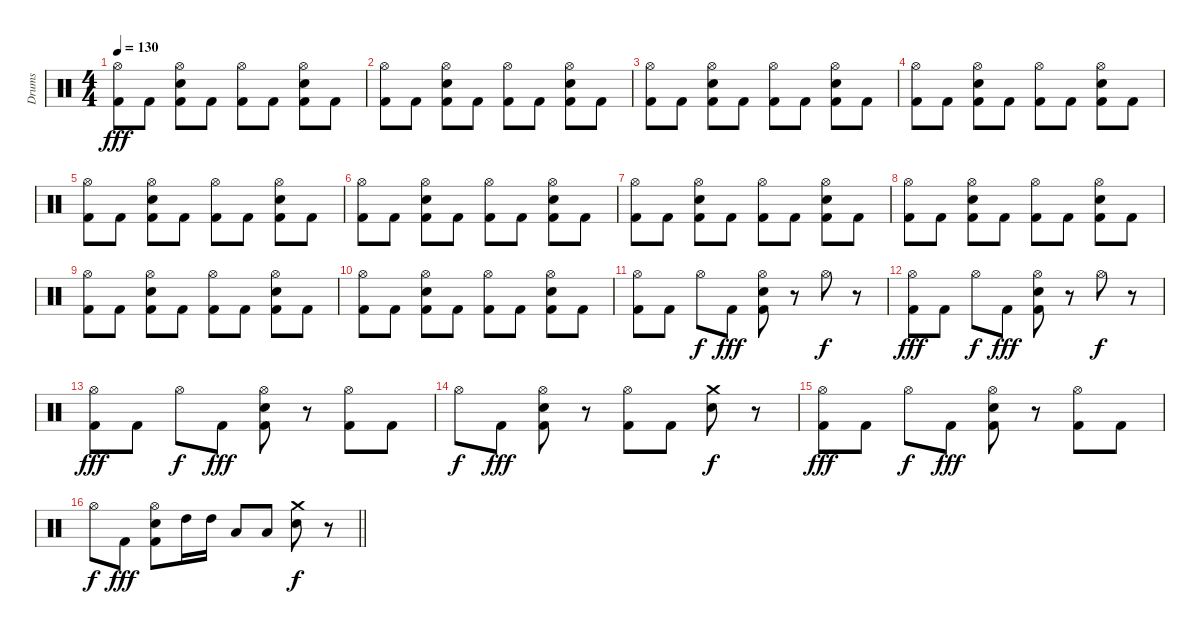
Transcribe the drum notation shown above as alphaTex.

\track ("Drums" "Drums") {instrument percussion}
\staff {score}
\articulation defaults
\ts (4 4)
\tempo 130
\clef neutral
\ks c
("Hi-Hat (open)" "Kick (hit) 2").8{dy fff} "Kick (hit) 2".8 ("Hi-Hat (open)" "Snare (hit) 2" "Kick (hit) 2").8 "Kick (hit) 2".8 ("Hi-Hat (open)" "Kick (hit) 2").8 "Kick (hit) 2".8 ("Hi-Hat (open)" "Snare (hit) 2" "Kick (hit) 2").8 "Kick (hit) 2".8 |
("Hi-Hat (open)" "Kick (hit) 2").8 "Kick (hit) 2".8 ("Hi-Hat (open)" "Snare (hit) 2" "Kick (hit) 2").8 "Kick (hit) 2".8 ("Hi-Hat (open)" "Kick (hit) 2").8 "Kick (hit) 2".8 ("Hi-Hat (open)" "Snare (hit) 2" "Kick (hit) 2").8 "Kick (hit) 2".8 |
("Hi-Hat (open)" "Kick (hit) 2").8 "Kick (hit) 2".8 ("Hi-Hat (open)" "Snare (hit) 2" "Kick (hit) 2").8 "Kick (hit) 2".8 ("Hi-Hat (open)" "Kick (hit) 2").8 "Kick (hit) 2".8 ("Hi-Hat (open)" "Snare (hit) 2" "Kick (hit) 2").8 "Kick (hit) 2".8 |
("Hi-Hat (open)" "Kick (hit) 2").8 "Kick (hit) 2".8 ("Hi-Hat (open)" "Snare (hit) 2" "Kick (hit) 2").8 "Kick (hit) 2".8 ("Hi-Hat (open)" "Kick (hit) 2").8 "Kick (hit) 2".8 ("Hi-Hat (open)" "Snare (hit) 2" "Kick (hit) 2").8 "Kick (hit) 2".8 |
("Hi-Hat (open)" "Kick (hit) 2").8 "Kick (hit) 2".8 ("Hi-Hat (open)" "Snare (hit) 2" "Kick (hit) 2").8 "Kick (hit) 2".8 ("Hi-Hat (open)" "Kick (hit) 2").8 "Kick (hit) 2".8 ("Hi-Hat (open)" "Snare (hit) 2" "Kick (hit) 2").8 "Kick (hit) 2".8 |
("Hi-Hat (open)" "Kick (hit) 2").8 "Kick (hit) 2".8 ("Hi-Hat (open)" "Snare (hit) 2" "Kick (hit) 2").8 "Kick (hit) 2".8 ("Hi-Hat (open)" "Kick (hit) 2").8 "Kick (hit) 2".8 ("Hi-Hat (open)" "Snare (hit) 2" "Kick (hit) 2").8 "Kick (hit) 2".8 |
("Hi-Hat (open)" "Kick (hit) 2").8 "Kick (hit) 2".8 ("Hi-Hat (open)" "Snare (hit) 2" "Kick (hit) 2").8 "Kick (hit) 2".8 ("Hi-Hat (open)" "Kick (hit) 2").8 "Kick (hit) 2".8 ("Hi-Hat (open)" "Snare (hit) 2" "Kick (hit) 2").8 "Kick (hit) 2".8 |
("Hi-Hat (open)" "Kick (hit) 2").8 "Kick (hit) 2".8 ("Hi-Hat (open)" "Snare (hit) 2" "Kick (hit) 2").8 "Kick (hit) 2".8 ("Hi-Hat (open)" "Kick (hit) 2").8 "Kick (hit) 2".8 ("Hi-Hat (open)" "Snare (hit) 2" "Kick (hit) 2").8 "Kick (hit) 2".8 |
("Hi-Hat (open)" "Kick (hit) 2").8 "Kick (hit) 2".8 ("Hi-Hat (open)" "Snare (hit) 2" "Kick (hit) 2").8 "Kick (hit) 2".8 ("Hi-Hat (open)" "Kick (hit) 2").8 "Kick (hit) 2".8 ("Hi-Hat (open)" "Snare (hit) 2" "Kick (hit) 2").8 "Kick (hit) 2".8 |
("Hi-Hat (open)" "Kick (hit) 2").8 "Kick (hit) 2".8 ("Hi-Hat (open)" "Snare (hit) 2" "Kick (hit) 2").8 "Kick (hit) 2".8 ("Hi-Hat (open)" "Kick (hit) 2").8 "Kick (hit) 2".8 ("Hi-Hat (open)" "Snare (hit) 2" "Kick (hit) 2").8 "Kick (hit) 2".8 |
("Hi-Hat (open)" "Kick (hit) 2").8 "Kick (hit) 2".8 "Hi-Hat (open)".8{dy f} "Kick (hit) 2".8{dy fff} ("Hi-Hat (open)" "Snare (hit) 2" "Kick (hit) 2").8 r.8 "Hi-Hat (open)".8{dy f} r.8 |
("Hi-Hat (open)" "Kick (hit) 2").8{dy fff} "Kick (hit) 2".8 "Hi-Hat (open)".8{dy f} "Kick (hit) 2".8{dy fff} ("Hi-Hat (open)" "Snare (hit) 2" "Kick (hit) 2").8 r.8 "Hi-Hat (open)".8{dy f} r.8 |
("Hi-Hat (open)" "Kick (hit) 2").8{dy fff} "Kick (hit) 2".8 "Hi-Hat (open)".8{dy f} "Kick (hit) 2".8{dy fff} ("Hi-Hat (open)" "Snare (hit) 2" "Kick (hit) 2").8 r.8 ("Hi-Hat (open)" "Kick (hit) 2").8 "Kick (hit) 2".8 |
"Hi-Hat (open)".8{dy f} "Kick (hit) 2".8{dy fff} ("Hi-Hat (open)" "Snare (hit) 2" "Kick (hit) 2").8 r.8 ("Hi-Hat (open)" "Kick (hit) 2").8 "Kick (hit) 2".8 ("Crash medium (hit)" "Snare (hit) 2").8{dy f} r.8 |
("Hi-Hat (open)" "Kick (hit) 2").8{dy fff} "Kick (hit) 2".8 "Hi-Hat (open)".8{dy f} "Kick (hit) 2".8{dy fff} ("Hi-Hat (open)" "Snare (hit) 2" "Kick (hit) 2").8 r.8 ("Hi-Hat (open)" "Kick (hit) 2").8 "Kick (hit) 2".8 |
\barLineRight lightlight "Hi-Hat (open)".8{dy f} "Kick (hit) 2".8{dy fff}
("Hi-Hat (open)" "Snare (hit) 2" "Kick (hit) 2").8 "High Tom (hit)".16 "High Tom (hit)".16 "Low Tom (hit)".8 "Low Tom (hit)".8 ("Crash medium (hit)" "Snare (hit) 2").8{dy f} r.8
